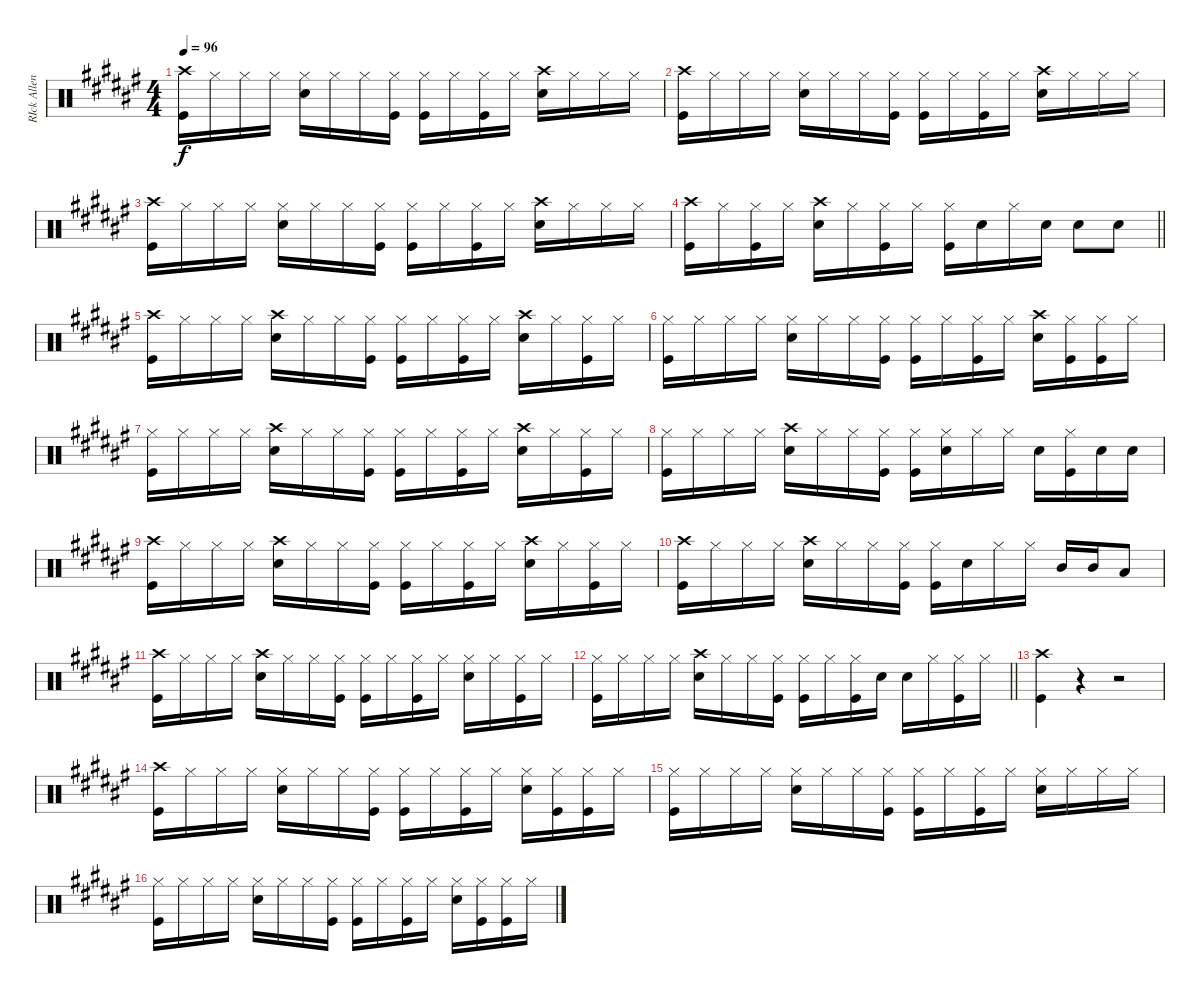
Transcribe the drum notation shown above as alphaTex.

\track ("RIck Allen" "RIck Allen") {instrument percussion}
\staff {score}
\articulation defaults
\ts (4 4)
\tempo 96
\clef neutral
\ks f#
("Crash high (hit)" "Kick (hit)").16{dy f} "Hi-Hat (closed)".16 "Hi-Hat (closed)".16 "Hi-Hat (closed)".16 ("Hi-Hat (closed)" "Snare (hit) 2").16 "Hi-Hat (closed)".16 "Hi-Hat (closed)".16 ("Hi-Hat (closed)" "Kick (hit)").16 ("Hi-Hat (closed)" "Kick (hit)").16 "Hi-Hat (closed)".16 ("Hi-Hat (closed)" "Kick (hit)").16 "Hi-Hat (closed)".16 ("Crash high (hit)" "Snare (hit) 2").16 "Hi-Hat (closed)".16 "Hi-Hat (closed)".16 "Hi-Hat (closed)".16 |
("Crash high (hit)" "Kick (hit)").16 "Hi-Hat (closed)".16 "Hi-Hat (closed)".16 "Hi-Hat (closed)".16 ("Hi-Hat (closed)" "Snare (hit) 2").16 "Hi-Hat (closed)".16 "Hi-Hat (closed)".16 ("Hi-Hat (closed)" "Kick (hit)").16 ("Hi-Hat (closed)" "Kick (hit)").16 "Hi-Hat (closed)".16 ("Hi-Hat (closed)" "Kick (hit)").16 "Hi-Hat (closed)".16 ("Crash high (hit)" "Snare (hit) 2").16 "Hi-Hat (closed)".16 "Hi-Hat (closed)".16 "Hi-Hat (closed)".16 |
("Crash high (hit)" "Kick (hit)").16 "Hi-Hat (closed)".16 "Hi-Hat (closed)".16 "Hi-Hat (closed)".16 ("Hi-Hat (closed)" "Snare (hit) 2").16 "Hi-Hat (closed)".16 "Hi-Hat (closed)".16 ("Hi-Hat (closed)" "Kick (hit)").16 ("Hi-Hat (closed)" "Kick (hit)").16 "Hi-Hat (closed)".16 ("Hi-Hat (closed)" "Kick (hit)").16 "Hi-Hat (closed)".16 ("Crash high (hit)" "Snare (hit) 2").16 "Hi-Hat (closed)".16 "Hi-Hat (closed)".16 "Hi-Hat (closed)".16 |
\barLineRight lightlight
("Crash high (hit)" "Kick (hit)").16 "Hi-Hat (closed)".16 ("Hi-Hat (closed)" "Kick (hit)").16 "Hi-Hat (closed)".16 ("Crash high (hit)" "Snare (hit) 2").16 "Hi-Hat (closed)".16 ("Hi-Hat (closed)" "Kick (hit)").16 "Hi-Hat (closed)".16 ("Hi-Hat (closed)" "Kick (hit)").16 "Snare (hit) 2".16 "Hi-Hat (closed)".16 "Snare (hit) 2".16 "Snare (hit) 2".8 "Snare (hit) 2".8 |
("Crash high (hit)" "Kick (hit)").16 "Hi-Hat (closed)".16 "Hi-Hat (closed)".16 "Hi-Hat (closed)".16 ("Crash high (hit)" "Snare (hit) 2").16 "Hi-Hat (closed)".16 "Hi-Hat (closed)".16 ("Hi-Hat (closed)" "Kick (hit)").16 ("Hi-Hat (closed)" "Kick (hit)").16 "Hi-Hat (closed)".16 ("Hi-Hat (closed)" "Kick (hit)").16 "Hi-Hat (closed)".16 ("Crash high (hit)" "Snare (hit) 2").16 "Hi-Hat (closed)".16 ("Hi-Hat (closed)" "Kick (hit)").16 "Hi-Hat (closed)".16 |
("Hi-Hat (closed)" "Kick (hit)").16 "Hi-Hat (closed)".16 "Hi-Hat (closed)".16 "Hi-Hat (closed)".16 ("Hi-Hat (closed)" "Snare (hit) 2").16 "Hi-Hat (closed)".16 "Hi-Hat (closed)".16 ("Hi-Hat (closed)" "Kick (hit)").16 ("Hi-Hat (closed)" "Kick (hit)").16 "Hi-Hat (closed)".16 ("Hi-Hat (closed)" "Kick (hit)").16 "Hi-Hat (closed)".16 ("Crash high (hit)" "Snare (hit) 2").16 ("Hi-Hat (closed)" "Kick (hit)").16 ("Hi-Hat (closed)" "Kick (hit)").16 "Hi-Hat (closed)".16 |
("Hi-Hat (closed)" "Kick (hit)").16 "Hi-Hat (closed)".16 "Hi-Hat (closed)".16 "Hi-Hat (closed)".16 ("Crash high (hit)" "Snare (hit) 2").16 "Hi-Hat (closed)".16 "Hi-Hat (closed)".16 ("Hi-Hat (closed)" "Kick (hit)").16 ("Hi-Hat (closed)" "Kick (hit)").16 "Hi-Hat (closed)".16 ("Hi-Hat (closed)" "Kick (hit)").16 "Hi-Hat (closed)".16 ("Crash high (hit)" "Snare (hit) 2").16 "Hi-Hat (closed)".16 ("Hi-Hat (closed)" "Kick (hit)").16 "Hi-Hat (closed)".16 |
("Hi-Hat (closed)" "Kick (hit)").16 "Hi-Hat (closed)".16 "Hi-Hat (closed)".16 "Hi-Hat (closed)".16 ("Crash high (hit)" "Snare (hit) 2").16 "Hi-Hat (closed)".16 "Hi-Hat (closed)".16 ("Hi-Hat (closed)" "Kick (hit)").16 ("Hi-Hat (closed)" "Kick (hit)").16 ("Hi-Hat (closed)" "Snare (hit) 2").16 "Hi-Hat (closed)".16 "Hi-Hat (closed)".16 "Snare (hit) 2".16 ("Hi-Hat (closed)" "Kick (hit)").16 "Snare (hit) 2".16 "Snare (hit) 2".16 |
("Crash high (hit)" "Kick (hit)").16 "Hi-Hat (closed)".16 "Hi-Hat (closed)".16 "Hi-Hat (closed)".16 ("Crash high (hit)" "Snare (hit) 2").16 "Hi-Hat (closed)".16 "Hi-Hat (closed)".16 ("Hi-Hat (closed)" "Kick (hit)").16 ("Hi-Hat (closed)" "Kick (hit)").16 "Hi-Hat (closed)".16 ("Hi-Hat (closed)" "Kick (hit)").16 "Hi-Hat (closed)".16 ("Crash high (hit)" "Snare (hit) 2").16 "Hi-Hat (closed)".16 ("Hi-Hat (closed)" "Kick (hit)").16 "Hi-Hat (closed)".16 |
("Crash high (hit)" "Kick (hit)").16 "Hi-Hat (closed)".16 "Hi-Hat (closed)".16 "Hi-Hat (closed)".16 ("Crash high (hit)" "Snare (hit) 2").16 "Hi-Hat (closed)".16 "Hi-Hat (closed)".16 ("Hi-Hat (closed)" "Kick (hit)").16 ("Hi-Hat (closed)" "Kick (hit)").16 "Snare (hit) 2".16 "Hi-Hat (closed)".16 "Hi-Hat (closed)".16 "Mid Tom (hit)".16 "Mid Tom (hit)".16 "Low Tom (hit)".8 |
("Crash high (hit)" "Kick (hit)").16 "Hi-Hat (closed)".16 "Hi-Hat (closed)".16 "Hi-Hat (closed)".16 ("Crash high (hit)" "Snare (hit) 2").16 "Hi-Hat (closed)".16 "Hi-Hat (closed)".16 ("Hi-Hat (closed)" "Kick (hit)").16 ("Hi-Hat (closed)" "Kick (hit)").16 "Hi-Hat (closed)".16 ("Hi-Hat (closed)" "Kick (hit)").16 "Hi-Hat (closed)".16 ("Hi-Hat (closed)" "Snare (hit) 2").16 "Hi-Hat (closed)".16 ("Hi-Hat (closed)" "Kick (hit)").16 "Hi-Hat (closed)".16 |
\barLineRight lightlight
("Hi-Hat (closed)" "Kick (hit)").16 "Hi-Hat (closed)".16 "Hi-Hat (closed)".16 "Hi-Hat (closed)".16 ("Crash high (hit)" "Snare (hit) 2").16 "Hi-Hat (closed)".16 "Hi-Hat (closed)".16 ("Hi-Hat (closed)" "Kick (hit)").16 ("Hi-Hat (closed)" "Kick (hit)").16 "Hi-Hat (closed)".16 ("Hi-Hat (closed)" "Kick (hit)").16 "Snare (hit) 2".16 "Snare (hit) 2".16 "Hi-Hat (closed)".16 ("Hi-Hat (closed)" "Kick (hit)").16 "Hi-Hat (closed)".16 |
("Crash high (hit)" "Kick (hit)").4 r.4 r.2 |
("Crash high (hit)" "Kick (hit)").16 "Hi-Hat (closed)".16 "Hi-Hat (closed)".16 "Hi-Hat (closed)".16 ("Hi-Hat (closed)" "Snare (hit) 2").16 "Hi-Hat (closed)".16 "Hi-Hat (closed)".16 ("Hi-Hat (closed)" "Kick (hit)").16 ("Hi-Hat (closed)" "Kick (hit)").16 "Hi-Hat (closed)".16 ("Hi-Hat (closed)" "Kick (hit)").16 "Hi-Hat (closed)".16 ("Hi-Hat (closed)" "Snare (hit) 2").16 ("Hi-Hat (closed)" "Kick (hit)").16 ("Hi-Hat (closed)" "Kick (hit)").16 "Hi-Hat (closed)".16 |
("Hi-Hat (closed)" "Kick (hit)").16 "Hi-Hat (closed)".16 "Hi-Hat (closed)".16 "Hi-Hat (closed)".16 ("Hi-Hat (closed)" "Snare (hit) 2").16 "Hi-Hat (closed)".16 "Hi-Hat (closed)".16 ("Hi-Hat (closed)" "Kick (hit)").16 ("Hi-Hat (closed)" "Kick (hit)").16 "Hi-Hat (closed)".16 ("Hi-Hat (closed)" "Kick (hit)").16 "Hi-Hat (closed)".16 ("Hi-Hat (closed)" "Snare (hit) 2").16 "Hi-Hat (closed)".16 "Hi-Hat (closed)".16 "Hi-Hat (closed)".16 |
("Hi-Hat (closed)" "Kick (hit)").16 "Hi-Hat (closed)".16 "Hi-Hat (closed)".16 "Hi-Hat (closed)".16 ("Hi-Hat (closed)" "Snare (hit) 2").16 "Hi-Hat (closed)".16 "Hi-Hat (closed)".16 ("Hi-Hat (closed)" "Kick (hit)").16 ("Hi-Hat (closed)" "Kick (hit)").16 "Hi-Hat (closed)".16 ("Hi-Hat (closed)" "Kick (hit)").16 "Hi-Hat (closed)".16 ("Hi-Hat (closed)" "Snare (hit) 2").16 ("Hi-Hat (closed)" "Kick (hit)").16 ("Hi-Hat (closed)" "Kick (hit)").16 "Hi-Hat (closed)".16
